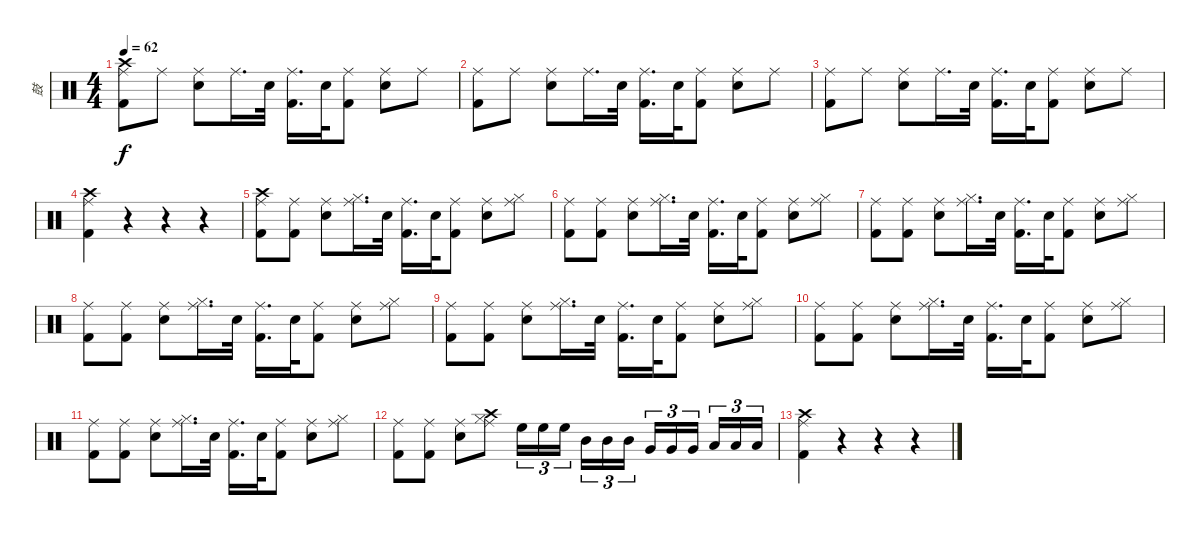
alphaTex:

\track ("鼓" "鼓") {instrument percussion}
\staff {score}
\articulation defaults
\ts (4 4)
\tempo 62
\clef neutral
\ks c
("Kick (hit) 2" "Crash high (hit)" "Ride (middle)").8{dy f} "Ride (middle)".8 ("Electric Snare (hit)" "Ride (middle)").8 "Ride (middle)".16{d} "Electric Snare (hit)".32 ("Kick (hit) 2" "Ride (middle)").16{d} "Electric Snare (hit)".32 ("Kick (hit) 2" "Ride (middle)").8 ("Electric Snare (hit)" "Ride (middle)").8 "Ride (middle)".8 |
("Kick (hit) 2" "Ride (middle)").8 "Ride (middle)".8 ("Electric Snare (hit)" "Ride (middle)").8 "Ride (middle)".16{d} "Electric Snare (hit)".32 ("Kick (hit) 2" "Ride (middle)").16{d} "Electric Snare (hit)".32 ("Kick (hit) 2" "Ride (middle)").8 ("Electric Snare (hit)" "Ride (middle)").8 "Ride (middle)".8 |
("Kick (hit) 2" "Ride (middle)").8 "Ride (middle)".8 ("Electric Snare (hit)" "Ride (middle)").8 "Ride (middle)".16{d} "Electric Snare (hit)".32 ("Kick (hit) 2" "Ride (middle)").16{d} "Electric Snare (hit)".32 ("Kick (hit) 2" "Ride (middle)").8 ("Electric Snare (hit)" "Ride (middle)").8 "Ride (middle)".8 |
("Kick (hit) 2" "Crash high (hit)" "Ride (middle)").4 r.4 r.4 r.4 |
("Kick (hit) 2" "Crash high (hit)" "Ride (middle)").8 ("Kick (hit) 2" "Ride (middle)").8 ("Electric Snare (hit)" "Ride (middle)").8 ("Hi-Hat (closed)" "Ride (middle)").16{d} "Electric Snare (hit)".32 ("Kick (hit) 2" "Ride (middle)").16{d} "Electric Snare (hit)".32 ("Kick (hit) 2" "Ride (middle)").8 ("Electric Snare (hit)" "Ride (middle)").8 ("Hi-Hat (closed)" "Ride (middle)").8 |
("Kick (hit) 2" "Ride (middle)").8 ("Kick (hit) 2" "Ride (middle)").8 ("Electric Snare (hit)" "Ride (middle)").8 ("Hi-Hat (closed)" "Ride (middle)").16{d} "Electric Snare (hit)".32 ("Kick (hit) 2" "Ride (middle)").16{d} "Electric Snare (hit)".32 ("Kick (hit) 2" "Ride (middle)").8 ("Electric Snare (hit)" "Ride (middle)").8 ("Hi-Hat (closed)" "Ride (middle)").8 |
("Kick (hit) 2" "Ride (middle)").8 ("Kick (hit) 2" "Ride (middle)").8 ("Electric Snare (hit)" "Ride (middle)").8 ("Hi-Hat (closed)" "Ride (middle)").16{d} "Electric Snare (hit)".32 ("Kick (hit) 2" "Ride (middle)").16{d} "Electric Snare (hit)".32 ("Kick (hit) 2" "Ride (middle)").8 ("Electric Snare (hit)" "Ride (middle)").8 ("Hi-Hat (closed)" "Ride (middle)").8 |
("Kick (hit) 2" "Ride (middle)").8 ("Kick (hit) 2" "Ride (middle)").8 ("Electric Snare (hit)" "Ride (middle)").8 ("Hi-Hat (closed)" "Ride (middle)").16{d} "Electric Snare (hit)".32 ("Kick (hit) 2" "Ride (middle)").16{d} "Electric Snare (hit)".32 ("Kick (hit) 2" "Ride (middle)").8 ("Electric Snare (hit)" "Ride (middle)").8 ("Hi-Hat (closed)" "Ride (middle)").8 |
("Kick (hit) 2" "Ride (middle)").8 ("Kick (hit) 2" "Ride (middle)").8 ("Electric Snare (hit)" "Ride (middle)").8 ("Hi-Hat (closed)" "Ride (middle)").16{d} "Electric Snare (hit)".32 ("Kick (hit) 2" "Ride (middle)").16{d} "Electric Snare (hit)".32 ("Kick (hit) 2" "Ride (middle)").8 ("Electric Snare (hit)" "Ride (middle)").8 ("Hi-Hat (closed)" "Ride (middle)").8 |
("Kick (hit) 2" "Ride (middle)").8 ("Kick (hit) 2" "Ride (middle)").8 ("Electric Snare (hit)" "Ride (middle)").8 ("Hi-Hat (closed)" "Ride (middle)").16{d} "Electric Snare (hit)".32 ("Kick (hit) 2" "Ride (middle)").16{d} "Electric Snare (hit)".32 ("Kick (hit) 2" "Ride (middle)").8 ("Electric Snare (hit)" "Ride (middle)").8 ("Hi-Hat (closed)" "Ride (middle)").8 |
("Kick (hit) 2" "Ride (middle)").8 ("Kick (hit) 2" "Ride (middle)").8 ("Electric Snare (hit)" "Ride (middle)").8 ("Hi-Hat (closed)" "Ride (middle)").16{d} "Electric Snare (hit)".32 ("Kick (hit) 2" "Ride (middle)").16{d} "Electric Snare (hit)".32 ("Kick (hit) 2" "Ride (middle)").8 ("Electric Snare (hit)" "Ride (middle)").8 ("Hi-Hat (closed)" "Ride (middle)").8 |
("Kick (hit) 2" "Ride (middle)").8 ("Kick (hit) 2" "Ride (middle)").8 ("Electric Snare (hit)" "Ride (middle)").8 ("Hi-Hat (closed)" "Crash high (hit)" "Ride (middle)").8 "High Floor Tom (hit)".16{tu (3 2)} "High Floor Tom (hit)".16{tu (3 2)} "High Floor Tom (hit)".16{tu (3 2)} "Mid Tom (hit)".16{tu (3 2)} "Mid Tom (hit)".16{tu (3 2)} "Mid Tom (hit)".16{tu (3 2)} "Very Low Tom (hit)".16{tu (3 2)} "Very Low Tom (hit)".16{tu (3 2)} "Very Low Tom (hit)".16{tu (3 2)} "Low Floor Tom (hit)".16{tu (3 2)} "Low Floor Tom (hit)".16{tu (3 2)} "Low Floor Tom (hit)".16{tu (3 2)} |
("Kick (hit) 2" "Crash high (hit)" "Ride (middle)").4 r.4 r.4 r.4
